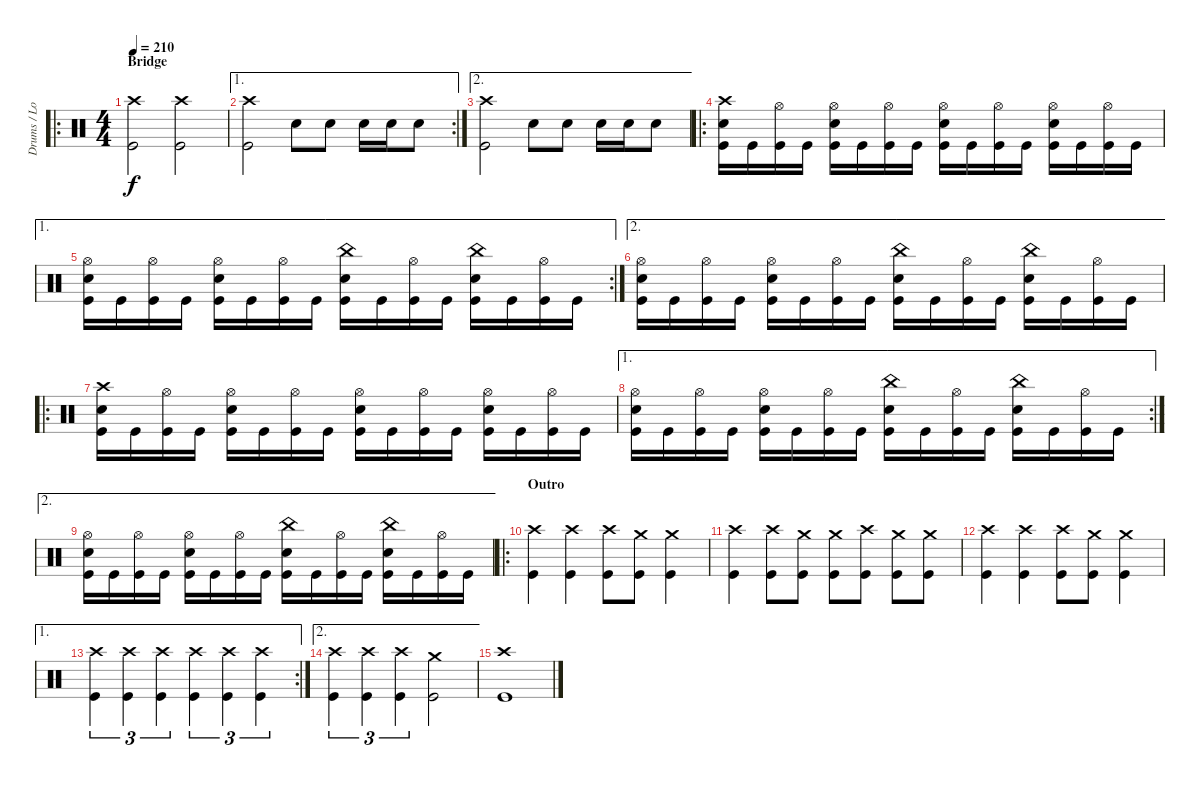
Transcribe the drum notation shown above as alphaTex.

\track ("Drums / Louie Clemente" "Drums / Lo") {instrument percussion}
\staff {score}
\articulation defaults
\ro
\ts (4 4)
\section ("" "Bridge")
\tempo 210
\clef neutral
\ks c
("Crash high (hit)" "Kick (hit)").2{dy f} ("Crash high (hit)" "Kick (hit)").2 |
\ae 1
\rc 2
("Crash high (hit)" "Kick (hit)").2 "Snare (hit) 2".8 "Snare (hit) 2".8 "Snare (hit) 2".16 "Snare (hit) 2".16 "Snare (hit) 2".8 |
\ae 2
("Crash high (hit)" "Kick (hit)").2 "Snare (hit) 2".8 "Snare (hit) 2".8 "Snare (hit) 2".16 "Snare (hit) 2".16 "Snare (hit) 2".8 |
\ro
("Crash high (hit)" "Snare (hit) 2" "Kick (hit)").16 "Kick (hit)".16 ("Hi-Hat (open)" "Kick (hit)").16 "Kick (hit)".16 ("Hi-Hat (open)" "Snare (hit) 2" "Kick (hit)").16 "Kick (hit)".16 ("Hi-Hat (open)" "Kick (hit)").16 "Kick (hit)".16 ("Hi-Hat (open)" "Snare (hit) 2" "Kick (hit)").16 "Kick (hit)".16 ("Hi-Hat (open)" "Kick (hit)").16 "Kick (hit)".16 ("Hi-Hat (open)" "Snare (hit) 2" "Kick (hit)").16 "Kick (hit)".16 ("Hi-Hat (open)" "Kick (hit)").16 "Kick (hit)".16 |
\ae 1
\rc 2
("Hi-Hat (open)" "Snare (hit) 2" "Kick (hit)").16 "Kick (hit)".16 ("Hi-Hat (open)" "Kick (hit)").16 "Kick (hit)".16 ("Hi-Hat (open)" "Snare (hit) 2" "Kick (hit)").16 "Kick (hit)".16 ("Hi-Hat (open)" "Kick (hit)").16 "Kick (hit)".16 ("China (hit)" "Snare (hit) 2" "Kick (hit)").16 "Kick (hit)".16 ("Hi-Hat (open)" "Kick (hit)").16 "Kick (hit)".16 ("China (hit)" "Snare (hit) 2" "Kick (hit)").16 "Kick (hit)".16 ("Hi-Hat (open)" "Kick (hit)").16 "Kick (hit)".16 |
\ae 2
("Hi-Hat (open)" "Snare (hit) 2" "Kick (hit)").16 "Kick (hit)".16 ("Hi-Hat (open)" "Kick (hit)").16 "Kick (hit)".16 ("Hi-Hat (open)" "Snare (hit) 2" "Kick (hit)").16 "Kick (hit)".16 ("Hi-Hat (open)" "Kick (hit)").16 "Kick (hit)".16 ("China (hit)" "Snare (hit) 2" "Kick (hit)").16 "Kick (hit)".16 ("Hi-Hat (open)" "Kick (hit)").16 "Kick (hit)".16 ("China (hit)" "Snare (hit) 2" "Kick (hit)").16 "Kick (hit)".16 ("Hi-Hat (open)" "Kick (hit)").16 "Kick (hit)".16 |
\ro
("Crash high (hit)" "Snare (hit) 2" "Kick (hit)").16 "Kick (hit)".16 ("Hi-Hat (open)" "Kick (hit)").16 "Kick (hit)".16 ("Hi-Hat (open)" "Snare (hit) 2" "Kick (hit)").16 "Kick (hit)".16 ("Hi-Hat (open)" "Kick (hit)").16 "Kick (hit)".16 ("Hi-Hat (open)" "Snare (hit) 2" "Kick (hit)").16 "Kick (hit)".16 ("Hi-Hat (open)" "Kick (hit)").16 "Kick (hit)".16 ("Hi-Hat (open)" "Snare (hit) 2" "Kick (hit)").16 "Kick (hit)".16 ("Hi-Hat (open)" "Kick (hit)").16 "Kick (hit)".16 |
\ae 1
\rc 2
("Hi-Hat (open)" "Snare (hit) 2" "Kick (hit)").16 "Kick (hit)".16 ("Hi-Hat (open)" "Kick (hit)").16 "Kick (hit)".16 ("Hi-Hat (open)" "Snare (hit) 2" "Kick (hit)").16 "Kick (hit)".16 ("Hi-Hat (open)" "Kick (hit)").16 "Kick (hit)".16 ("China (hit)" "Snare (hit) 2" "Kick (hit)").16 "Kick (hit)".16 ("Hi-Hat (open)" "Kick (hit)").16 "Kick (hit)".16 ("China (hit)" "Snare (hit) 2" "Kick (hit)").16 "Kick (hit)".16 ("Hi-Hat (open)" "Kick (hit)").16 "Kick (hit)".16 |
\ae 2
("Hi-Hat (open)" "Snare (hit) 2" "Kick (hit)").16 "Kick (hit)".16 ("Hi-Hat (open)" "Kick (hit)").16 "Kick (hit)".16 ("Hi-Hat (open)" "Snare (hit) 2" "Kick (hit)").16 "Kick (hit)".16 ("Hi-Hat (open)" "Kick (hit)").16 "Kick (hit)".16 ("China (hit)" "Snare (hit) 2" "Kick (hit)").16 "Kick (hit)".16 ("Hi-Hat (open)" "Kick (hit)").16 "Kick (hit)".16 ("China (hit)" "Snare (hit) 2" "Kick (hit)").16 "Kick (hit)".16 ("Hi-Hat (open)" "Kick (hit)").16 "Kick (hit)".16 |
\ro
\section ("" "Outro")
("Crash high (hit)" "Kick (hit)").4 ("Crash high (hit)" "Kick (hit)").4 ("Crash high (hit)" "Kick (hit)").8 ("Crash medium (hit)" "Kick (hit)").8 ("Crash medium (hit)" "Kick (hit)").4 |
("Crash high (hit)" "Kick (hit)").4 ("Crash high (hit)" "Kick (hit)").8 ("Crash medium (hit)" "Kick (hit)").8 ("Crash medium (hit)" "Kick (hit)").8 ("Crash high (hit)" "Kick (hit)").8 ("Crash medium (hit)" "Kick (hit)").8 ("Crash medium (hit)" "Kick (hit)").8 |
("Crash high (hit)" "Kick (hit)").4 ("Crash high (hit)" "Kick (hit)").4 ("Crash high (hit)" "Kick (hit)").8 ("Crash medium (hit)" "Kick (hit)").8 ("Crash medium (hit)" "Kick (hit)").4 |
\ae 1
\rc 2
("Crash high (hit)" "Kick (hit)").4{tu (3 2)} ("Crash high (hit)" "Kick (hit)").4{tu (3 2)} ("Crash high (hit)" "Kick (hit)").4{tu (3 2)} ("Crash high (hit)" "Kick (hit)").4{tu (3 2)} ("Crash high (hit)" "Kick (hit)").4{tu (3 2)} ("Crash high (hit)" "Kick (hit)").4{tu (3 2)} |
\ae 2
("Crash high (hit)" "Kick (hit)").4{tu (3 2)} ("Crash high (hit)" "Kick (hit)").4{tu (3 2)} ("Crash high (hit)" "Kick (hit)").4{tu (3 2)} ("Crash medium (hit)" "Kick (hit)").2 |
("Crash high (hit)" "Kick (hit)").1
